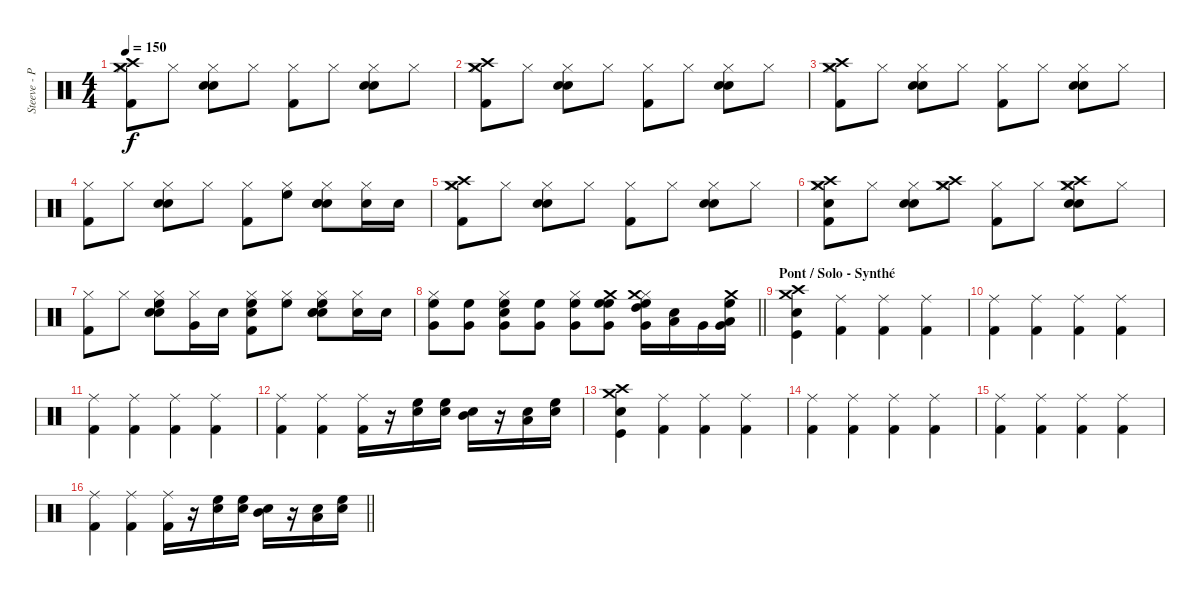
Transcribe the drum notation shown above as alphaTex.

\track ("Steeve - Percussions" "Steeve - P") {instrument percussion}
\staff {score}
\articulation defaults
\ts (4 4)
\tempo 150
\clef neutral
\ks c
("Hi-Hat (closed)" "Kick (hit) 2" "Crash medium (hit)" "Crash high (hit)").8{dy f} "Hi-Hat (closed)".8 ("Hi-Hat (closed)" "Snare (hit) 2" "Electric Snare (hit)").8 "Hi-Hat (closed)".8 ("Hi-Hat (closed)" "Kick (hit) 2").8 "Hi-Hat (closed)".8 ("Hi-Hat (closed)" "Snare (hit) 2" "Electric Snare (hit)").8 "Hi-Hat (closed)".8 |
("Hi-Hat (closed)" "Kick (hit) 2" "Crash medium (hit)" "Crash high (hit)").8 "Hi-Hat (closed)".8 ("Hi-Hat (closed)" "Snare (hit) 2" "Electric Snare (hit)").8 "Hi-Hat (closed)".8 ("Hi-Hat (closed)" "Kick (hit) 2").8 "Hi-Hat (closed)".8 ("Hi-Hat (closed)" "Snare (hit) 2" "Electric Snare (hit)").8 "Hi-Hat (closed)".8 |
("Hi-Hat (closed)" "Kick (hit) 2" "Crash medium (hit)" "Crash high (hit)").8 "Hi-Hat (closed)".8 ("Hi-Hat (closed)" "Snare (hit) 2" "Electric Snare (hit)").8 "Hi-Hat (closed)".8 ("Hi-Hat (closed)" "Kick (hit) 2").8 "Hi-Hat (closed)".8 ("Hi-Hat (closed)" "Snare (hit) 2" "Electric Snare (hit)").8 "Hi-Hat (closed)".8 |
("Hi-Hat (closed)" "Kick (hit) 2").8 "Hi-Hat (closed)".8 ("Hi-Hat (closed)" "Snare (hit) 2" "Electric Snare (hit)").8 "Hi-Hat (closed)".8 ("Hi-Hat (closed)" "Kick (hit) 2").8 ("Hi-Hat (closed)" "High Floor Tom (hit)").8 ("Hi-Hat (closed)" "Snare (hit) 2" "Electric Snare (hit)" "Snare (hit) 2").8 ("Hi-Hat (closed)" "Snare (hit) 2").16 "Snare (hit) 2".16 |
("Hi-Hat (closed)" "Kick (hit) 2" "Crash medium (hit)" "Crash high (hit)").8 "Hi-Hat (closed)".8 ("Hi-Hat (closed)" "Snare (hit) 2" "Electric Snare (hit)").8 "Hi-Hat (closed)".8 ("Hi-Hat (closed)" "Kick (hit) 2").8 "Hi-Hat (closed)".8 ("Hi-Hat (closed)" "Snare (hit) 2" "Electric Snare (hit)").8 "Hi-Hat (closed)".8 |
("Hi-Hat (closed)" "Kick (hit) 2" "Crash high (hit)" "Snare (hit) 2" "Crash medium (hit)").8 "Hi-Hat (closed)".8 ("Hi-Hat (closed)" "Snare (hit) 2" "Electric Snare (hit)").8 ("Hi-Hat (closed)" "Crash high (hit)" "Crash medium (hit)").8 ("Hi-Hat (closed)" "Kick (hit) 2").8 "Hi-Hat (closed)".8 ("Hi-Hat (closed)" "Snare (hit) 2" "Electric Snare (hit)" "Crash high (hit)" "Crash medium (hit)").8 "Hi-Hat (closed)".8 |
("Hi-Hat (closed)" "Kick (hit) 2").8 "Hi-Hat (closed)".8 ("Hi-Hat (closed)" "Snare (hit) 2" "Electric Snare (hit)" "High Floor Tom (hit)").8 ("Hi-Hat (closed)" "Very Low Tom (hit)").16 "Snare (hit) 2".16 ("Hi-Hat (closed)" "Kick (hit) 2" "Snare (hit) 2" "High Floor Tom (hit)").8 ("Hi-Hat (closed)" "High Floor Tom (hit)").8 ("Hi-Hat (closed)" "Snare (hit) 2" "Electric Snare (hit)" "Snare (hit) 2" "High Floor Tom (hit)").8 ("Hi-Hat (closed)" "Snare (hit) 2").16 "Snare (hit) 2".16 |
\barLineRight lightlight
("Hi-Hat (closed)" "High Floor Tom (hit)" "Very Low Tom (hit)").8 ("High Floor Tom (hit)" "Very Low Tom (hit)").8 ("Hi-Hat (closed)" "High Floor Tom (hit)" "Snare (hit) 2" "Very Low Tom (hit)").8 ("High Floor Tom (hit)" "Very Low Tom (hit)").8 ("Hi-Hat (closed)" "High Floor Tom (hit)" "Very Low Tom (hit)").8 ("High Floor Tom (hit)" "High Floor Tom (hit)" "Very Low Tom (hit)" "Crash medium (hit)").8 ("Hi-Hat (closed)" "High Floor Tom (hit)" "High Tom (hit)" "Very Low Tom (hit)" "Crash medium (hit)").16 ("Low Tom (hit)" "Snare (hit) 2").16 "Very Low Tom (hit)".16 ("High Floor Tom (hit)" "Low Tom (hit)" "Very Low Tom (hit)" "Crash medium (hit)").16 |
\section ("" "Pont / Solo - Synthé")
("Snare (hit) 2" "Kick (hit)" "Crash medium (hit)" "Crash high (hit)").4 ("Ride (middle)" "Kick (hit) 2").4 ("Ride (middle)" "Kick (hit) 2").4 ("Ride (middle)" "Kick (hit) 2").4 |
("Ride (middle)" "Kick (hit) 2").4 ("Ride (middle)" "Kick (hit) 2").4 ("Ride (middle)" "Kick (hit) 2").4 ("Ride (middle)" "Kick (hit) 2").4 |
("Ride (middle)" "Kick (hit) 2").4 ("Ride (middle)" "Kick (hit) 2").4 ("Ride (middle)" "Kick (hit) 2").4 ("Ride (middle)" "Kick (hit) 2").4 |
("Ride (middle)" "Kick (hit) 2").4 ("Ride (middle)" "Kick (hit) 2").4 ("Ride (middle)" "Kick (hit) 2").16 r.16 ("High Floor Tom (hit)" "Snare (hit) 2").16 ("High Floor Tom (hit)" "Snare (hit) 2").16 ("Mid Tom (hit)" "Snare (hit) 2").16 r.16 ("Low Tom (hit)" "Snare (hit) 2").16 ("High Floor Tom (hit)" "Snare (hit) 2").16 |
("Snare (hit) 2" "Kick (hit)" "Crash medium (hit)" "Crash high (hit)").4 ("Ride (middle)" "Kick (hit) 2").4 ("Ride (middle)" "Kick (hit) 2").4 ("Ride (middle)" "Kick (hit) 2").4 |
("Ride (middle)" "Kick (hit) 2").4 ("Ride (middle)" "Kick (hit) 2").4 ("Ride (middle)" "Kick (hit) 2").4 ("Ride (middle)" "Kick (hit) 2").4 |
("Ride (middle)" "Kick (hit) 2").4 ("Ride (middle)" "Kick (hit) 2").4 ("Ride (middle)" "Kick (hit) 2").4 ("Ride (middle)" "Kick (hit) 2").4 |
\barLineRight lightlight
("Ride (middle)" "Kick (hit) 2").4 ("Ride (middle)" "Kick (hit) 2").4 ("Ride (middle)" "Kick (hit) 2").16 r.16 ("High Floor Tom (hit)" "Snare (hit) 2").16 ("High Floor Tom (hit)" "Snare (hit) 2").16 ("Mid Tom (hit)" "Snare (hit) 2").16 r.16 ("Low Tom (hit)" "Snare (hit) 2").16 ("High Floor Tom (hit)" "Snare (hit) 2").16
